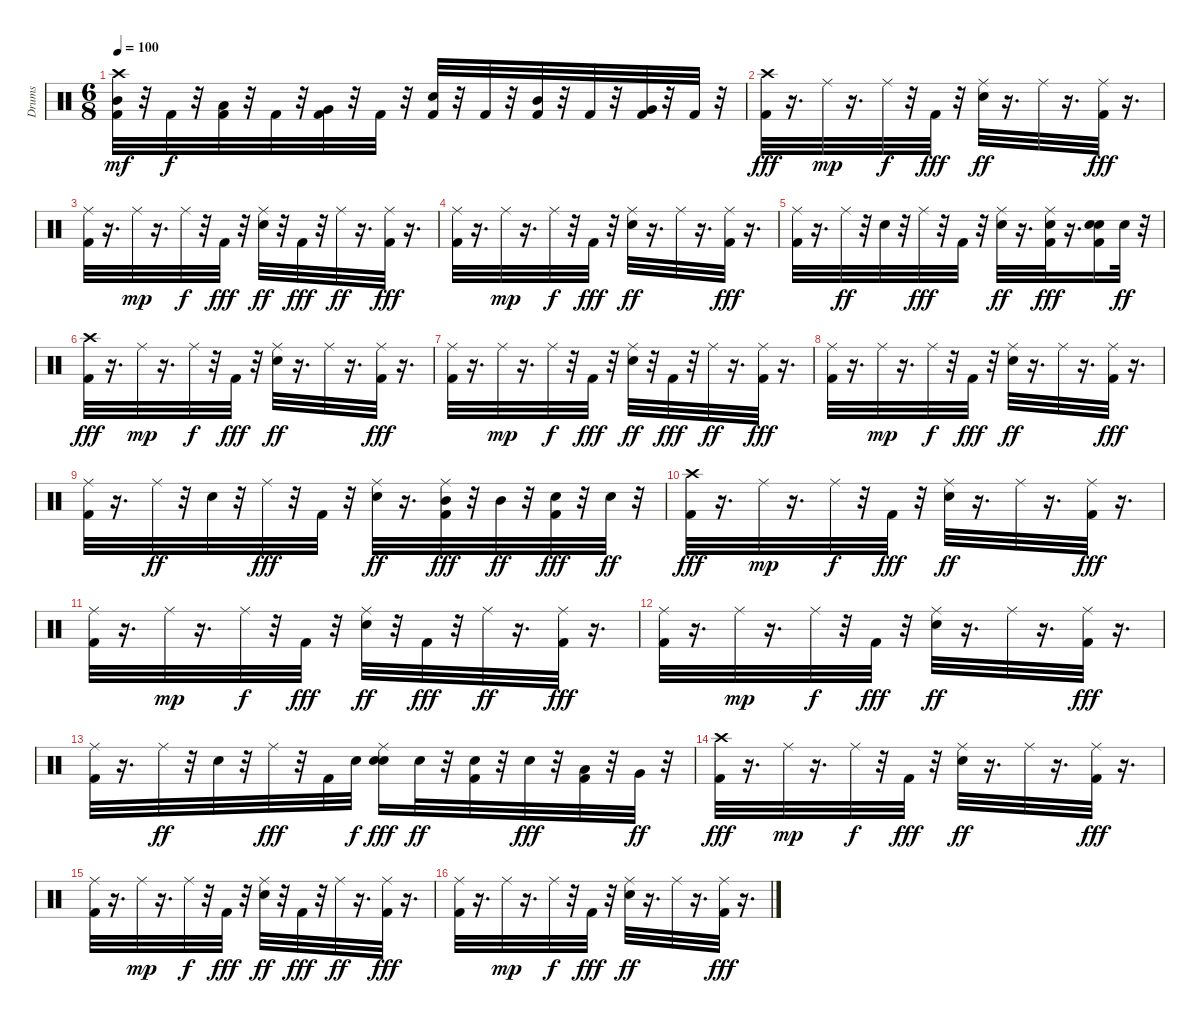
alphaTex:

\track ("Drums               " "Drums     ") {instrument percussion}
\staff {score}
\articulation defaults
\ts (6 8)
\tempo 100
\clef neutral
\ks c
("Mid Tom (hit)" "Kick (hit) 2" "Crash high (hit)").32{dy mf} r.32 "Kick (hit) 2".32{dy f} r.32 ("Low Tom (hit)" "Kick (hit) 2").32 r.32 "Kick (hit) 2".32 r.32 ("Very Low Tom (hit)" "Kick (hit) 2").32 r.32 "Kick (hit) 2".32 r.32 ("Electric Snare (hit)" "Kick (hit) 2").32 r.32 "Kick (hit) 2".32 r.32 ("Mid Tom (hit)" "Kick (hit) 2").32 r.32 "Kick (hit) 2".32 r.32 ("Very Low Tom (hit)" "Kick (hit) 2").32 r.32 "Kick (hit) 2".32 r.32 |
("Crash high (hit)" "Kick (hit) 2").32{dy fff} r.16{d} "Ride (middle)".32{dy mp} r.16{d} "Ride (middle)".32{dy f} r.32 "Kick (hit) 2".32{dy fff} r.32 ("Ride (middle)" "Electric Snare (hit)").32{dy ff} r.16{d} "Ride (middle)".32 r.16{d} ("Ride (middle)" "Kick (hit) 2").32{dy fff} r.16{d} |
("Ride (middle)" "Kick (hit) 2").32 r.16{d} "Ride (middle)".32{dy mp} r.16{d} "Ride (middle)".32{dy f} r.32 "Kick (hit) 2".32{dy fff} r.32 ("Ride (middle)" "Electric Snare (hit)").32{dy ff} r.32 "Kick (hit) 2".32{dy fff} r.32 "Ride (middle)".32{dy ff} r.16{d} ("Ride (middle)" "Kick (hit) 2").32{dy fff} r.16{d} |
("Ride (middle)" "Kick (hit) 2").32 r.16{d} "Ride (middle)".32{dy mp} r.16{d} "Ride (middle)".32{dy f} r.32 "Kick (hit) 2".32{dy fff} r.32 ("Ride (middle)" "Electric Snare (hit)").32{dy ff} r.16{d} "Ride (middle)".32 r.16{d} ("Ride (middle)" "Kick (hit) 2").32{dy fff} r.16{d} |
("Ride (middle)" "Kick (hit) 2").32 r.16{d} "Ride (middle)".32{dy ff} r.32 "Electric Snare (hit)".32 r.32 "Ride (middle)".32{dy fff} r.32 "Kick (hit) 2".32 r.32 ("Ride (middle)" "Electric Snare (hit)").32{dy ff} r.16{d} ("Ride (middle)" "Kick (hit) 2" "Electric Snare (hit)").32{dy fff} r.16{d} ("Electric Snare (hit)" "Kick (hit) 2" "Electric Snare (hit)").16 "Electric Snare (hit)".32{dy ff} r.32 |
("Crash high (hit)" "Kick (hit) 2").32{dy fff} r.16{d} "Ride (middle)".32{dy mp} r.16{d} "Ride (middle)".32{dy f} r.32 "Kick (hit) 2".32{dy fff} r.32 ("Ride (middle)" "Electric Snare (hit)").32{dy ff} r.16{d} "Ride (middle)".32 r.16{d} ("Ride (middle)" "Kick (hit) 2").32{dy fff} r.16{d} |
("Ride (middle)" "Kick (hit) 2").32 r.16{d} "Ride (middle)".32{dy mp} r.16{d} "Ride (middle)".32{dy f} r.32 "Kick (hit) 2".32{dy fff} r.32 ("Ride (middle)" "Electric Snare (hit)").32{dy ff} r.32 "Kick (hit) 2".32{dy fff} r.32 "Ride (middle)".32{dy ff} r.16{d} ("Ride (middle)" "Kick (hit) 2").32{dy fff} r.16{d} |
("Ride (middle)" "Kick (hit) 2").32 r.16{d} "Ride (middle)".32{dy mp} r.16{d} "Ride (middle)".32{dy f} r.32 "Kick (hit) 2".32{dy fff} r.32 ("Ride (middle)" "Electric Snare (hit)").32{dy ff} r.16{d} "Ride (middle)".32 r.16{d} ("Ride (middle)" "Kick (hit) 2").32{dy fff} r.16{d} |
("Ride (middle)" "Kick (hit) 2").32 r.16{d} "Ride (middle)".32{dy ff} r.32 "Electric Snare (hit)".32 r.32 "Ride (middle)".32{dy fff} r.32 "Kick (hit) 2".32 r.32 ("Ride (middle)" "Electric Snare (hit)").32{dy ff} r.16{d} ("Mid Tom (hit)" "Ride (middle)" "Kick (hit) 2").32{dy fff} r.32 "Mid Tom (hit)".32{dy ff} r.32 ("Kick (hit) 2" "Electric Snare (hit)").32{dy fff} r.32 "Electric Snare (hit)".32{dy ff} r.32 |
("Crash high (hit)" "Kick (hit) 2").32{dy fff} r.16{d} "Ride (middle)".32{dy mp} r.16{d} "Ride (middle)".32{dy f} r.32 "Kick (hit) 2".32{dy fff} r.32 ("Ride (middle)" "Electric Snare (hit)").32{dy ff} r.16{d} "Ride (middle)".32 r.16{d} ("Ride (middle)" "Kick (hit) 2").32{dy fff} r.16{d} |
("Ride (middle)" "Kick (hit) 2").32 r.16{d} "Ride (middle)".32{dy mp} r.16{d} "Ride (middle)".32{dy f} r.32 "Kick (hit) 2".32{dy fff} r.32 ("Ride (middle)" "Electric Snare (hit)").32{dy ff} r.32 "Kick (hit) 2".32{dy fff} r.32 "Ride (middle)".32{dy ff} r.16{d} ("Ride (middle)" "Kick (hit) 2").32{dy fff} r.16{d} |
("Ride (middle)" "Kick (hit) 2").32 r.16{d} "Ride (middle)".32{dy mp} r.16{d} "Ride (middle)".32{dy f} r.32 "Kick (hit) 2".32{dy fff} r.32 ("Ride (middle)" "Electric Snare (hit)").32{dy ff} r.16{d} "Ride (middle)".32 r.16{d} ("Ride (middle)" "Kick (hit) 2").32{dy fff} r.16{d} |
("Ride (middle)" "Kick (hit) 2").32 r.16{d} "Ride (middle)".32{dy ff} r.32 "Electric Snare (hit)".32 r.32 "Ride (middle)".32{dy fff} r.32 "Kick (hit) 2".32 "Electric Snare (hit)".32{dy f} ("Electric Snare (hit)" "Ride (middle)" "Electric Snare (hit)").16{dy fff} "Electric Snare (hit)".32{dy ff} r.32 ("Kick (hit) 2" "Electric Snare (hit)").32 r.32 "Electric Snare (hit)".32{dy fff} r.32 ("Kick (hit) 2" "Low Tom (hit)").32 r.32 "Very Low Tom (hit)".32{dy ff} r.32 |
("Crash high (hit)" "Kick (hit) 2").32{dy fff} r.16{d} "Ride (middle)".32{dy mp} r.16{d} "Ride (middle)".32{dy f} r.32 "Kick (hit) 2".32{dy fff} r.32 ("Ride (middle)" "Electric Snare (hit)").32{dy ff} r.16{d} "Ride (middle)".32 r.16{d} ("Ride (middle)" "Kick (hit) 2").32{dy fff} r.16{d} |
("Ride (middle)" "Kick (hit) 2").32 r.16{d} "Ride (middle)".32{dy mp} r.16{d} "Ride (middle)".32{dy f} r.32 "Kick (hit) 2".32{dy fff} r.32 ("Ride (middle)" "Electric Snare (hit)").32{dy ff} r.32 "Kick (hit) 2".32{dy fff} r.32 "Ride (middle)".32{dy ff} r.16{d} ("Ride (middle)" "Kick (hit) 2").32{dy fff} r.16{d} |
("Ride (middle)" "Kick (hit) 2").32 r.16{d} "Ride (middle)".32{dy mp} r.16{d} "Ride (middle)".32{dy f} r.32 "Kick (hit) 2".32{dy fff} r.32 ("Ride (middle)" "Electric Snare (hit)").32{dy ff} r.16{d} "Ride (middle)".32 r.16{d} ("Ride (middle)" "Kick (hit) 2").32{dy fff} r.16{d}
